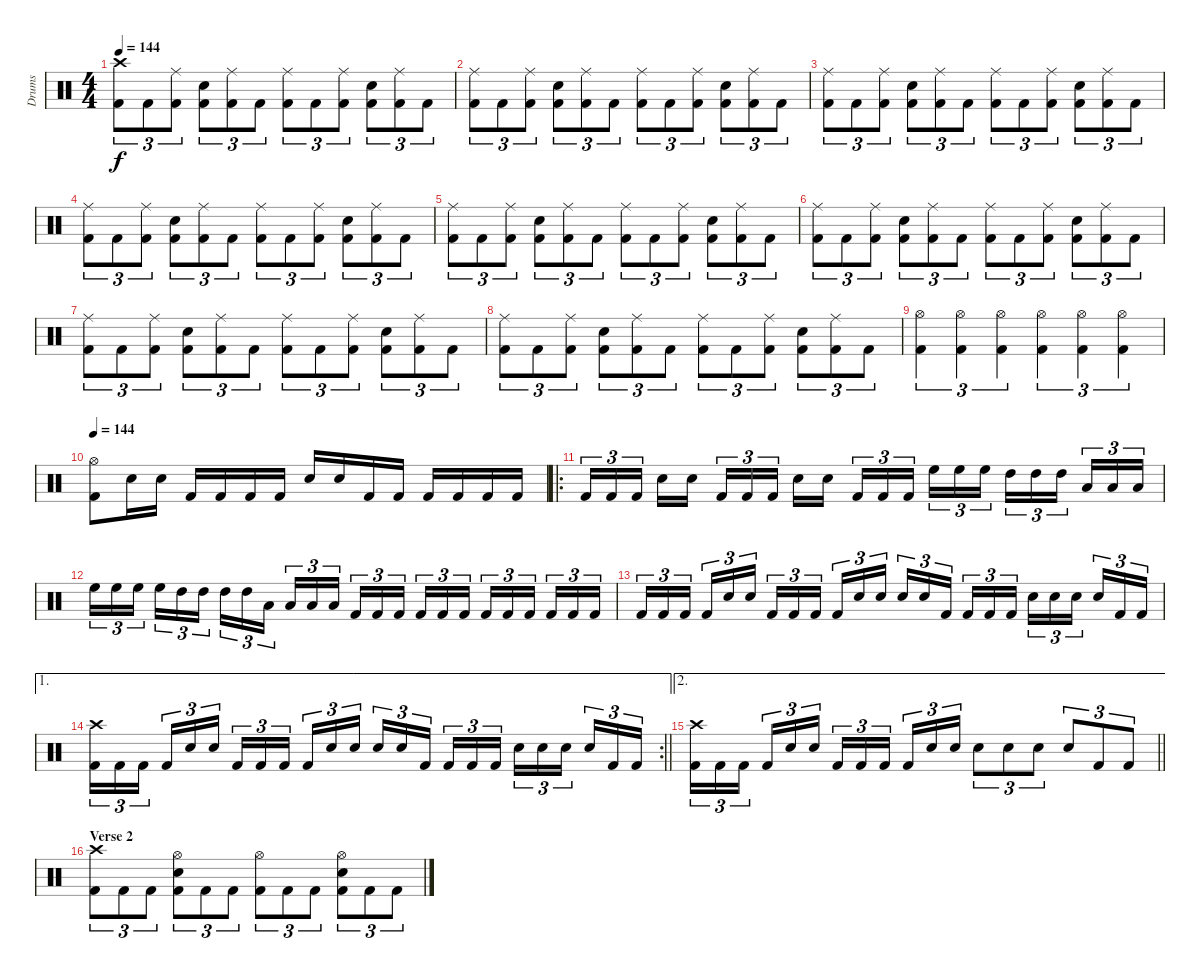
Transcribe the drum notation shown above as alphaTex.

\track ("Drums" "Drums") {instrument percussion}
\staff {score}
\articulation defaults
\ts (4 4)
\tempo 144
\clef neutral
\ks c
("Crash high (hit)" "Kick (hit) 2").8{tu (3 2) dy f} "Kick (hit) 2".8{tu (3 2)} ("Ride (middle)" "Kick (hit) 2").8{tu (3 2)} ("Snare (hit) 2" "Kick (hit) 2").8{tu (3 2)} ("Ride (middle)" "Kick (hit) 2").8{tu (3 2)} "Kick (hit) 2".8{tu (3 2)} ("Ride (middle)" "Kick (hit) 2").8{tu (3 2)} "Kick (hit) 2".8{tu (3 2)} ("Ride (middle)" "Kick (hit) 2").8{tu (3 2)} ("Snare (hit) 2" "Kick (hit) 2").8{tu (3 2)} ("Ride (middle)" "Kick (hit) 2").8{tu (3 2)} "Kick (hit) 2".8{tu (3 2)} |
("Ride (middle)" "Kick (hit) 2").8{tu (3 2)} "Kick (hit) 2".8{tu (3 2)} ("Ride (middle)" "Kick (hit) 2").8{tu (3 2)} ("Snare (hit) 2" "Kick (hit) 2").8{tu (3 2)} ("Ride (middle)" "Kick (hit) 2").8{tu (3 2)} "Kick (hit) 2".8{tu (3 2)} ("Ride (middle)" "Kick (hit) 2").8{tu (3 2)} "Kick (hit) 2".8{tu (3 2)} ("Ride (middle)" "Kick (hit) 2").8{tu (3 2)} ("Snare (hit) 2" "Kick (hit) 2").8{tu (3 2)} ("Ride (middle)" "Kick (hit) 2").8{tu (3 2)} "Kick (hit) 2".8{tu (3 2)} |
("Ride (middle)" "Kick (hit) 2").8{tu (3 2)} "Kick (hit) 2".8{tu (3 2)} ("Ride (middle)" "Kick (hit) 2").8{tu (3 2)} ("Snare (hit) 2" "Kick (hit) 2").8{tu (3 2)} ("Ride (middle)" "Kick (hit) 2").8{tu (3 2)} "Kick (hit) 2".8{tu (3 2)} ("Ride (middle)" "Kick (hit) 2").8{tu (3 2)} "Kick (hit) 2".8{tu (3 2)} ("Ride (middle)" "Kick (hit) 2").8{tu (3 2)} ("Snare (hit) 2" "Kick (hit) 2").8{tu (3 2)} ("Ride (middle)" "Kick (hit) 2").8{tu (3 2)} "Kick (hit) 2".8{tu (3 2)} |
("Ride (middle)" "Kick (hit) 2").8{tu (3 2)} "Kick (hit) 2".8{tu (3 2)} ("Ride (middle)" "Kick (hit) 2").8{tu (3 2)} ("Snare (hit) 2" "Kick (hit) 2").8{tu (3 2)} ("Ride (middle)" "Kick (hit) 2").8{tu (3 2)} "Kick (hit) 2".8{tu (3 2)} ("Ride (middle)" "Kick (hit) 2").8{tu (3 2)} "Kick (hit) 2".8{tu (3 2)} ("Ride (middle)" "Kick (hit) 2").8{tu (3 2)} ("Snare (hit) 2" "Kick (hit) 2").8{tu (3 2)} ("Ride (middle)" "Kick (hit) 2").8{tu (3 2)} "Kick (hit) 2".8{tu (3 2)} |
("Ride (middle)" "Kick (hit) 2").8{tu (3 2)} "Kick (hit) 2".8{tu (3 2)} ("Ride (middle)" "Kick (hit) 2").8{tu (3 2)} ("Snare (hit) 2" "Kick (hit) 2").8{tu (3 2)} ("Ride (middle)" "Kick (hit) 2").8{tu (3 2)} "Kick (hit) 2".8{tu (3 2)} ("Ride (middle)" "Kick (hit) 2").8{tu (3 2)} "Kick (hit) 2".8{tu (3 2)} ("Ride (middle)" "Kick (hit) 2").8{tu (3 2)} ("Snare (hit) 2" "Kick (hit) 2").8{tu (3 2)} ("Ride (middle)" "Kick (hit) 2").8{tu (3 2)} "Kick (hit) 2".8{tu (3 2)} |
("Ride (middle)" "Kick (hit) 2").8{tu (3 2)} "Kick (hit) 2".8{tu (3 2)} ("Ride (middle)" "Kick (hit) 2").8{tu (3 2)} ("Snare (hit) 2" "Kick (hit) 2").8{tu (3 2)} ("Ride (middle)" "Kick (hit) 2").8{tu (3 2)} "Kick (hit) 2".8{tu (3 2)} ("Ride (middle)" "Kick (hit) 2").8{tu (3 2)} "Kick (hit) 2".8{tu (3 2)} ("Ride (middle)" "Kick (hit) 2").8{tu (3 2)} ("Snare (hit) 2" "Kick (hit) 2").8{tu (3 2)} ("Ride (middle)" "Kick (hit) 2").8{tu (3 2)} "Kick (hit) 2".8{tu (3 2)} |
("Ride (middle)" "Kick (hit) 2").8{tu (3 2)} "Kick (hit) 2".8{tu (3 2)} ("Ride (middle)" "Kick (hit) 2").8{tu (3 2)} ("Snare (hit) 2" "Kick (hit) 2").8{tu (3 2)} ("Ride (middle)" "Kick (hit) 2").8{tu (3 2)} "Kick (hit) 2".8{tu (3 2)} ("Ride (middle)" "Kick (hit) 2").8{tu (3 2)} "Kick (hit) 2".8{tu (3 2)} ("Ride (middle)" "Kick (hit) 2").8{tu (3 2)} ("Snare (hit) 2" "Kick (hit) 2").8{tu (3 2)} ("Ride (middle)" "Kick (hit) 2").8{tu (3 2)} "Kick (hit) 2".8{tu (3 2)} |
("Ride (middle)" "Kick (hit) 2").8{tu (3 2)} "Kick (hit) 2".8{tu (3 2)} ("Ride (middle)" "Kick (hit) 2").8{tu (3 2)} ("Snare (hit) 2" "Kick (hit) 2").8{tu (3 2)} ("Ride (middle)" "Kick (hit) 2").8{tu (3 2)} "Kick (hit) 2".8{tu (3 2)} ("Ride (middle)" "Kick (hit) 2").8{tu (3 2)} "Kick (hit) 2".8{tu (3 2)} ("Ride (middle)" "Kick (hit) 2").8{tu (3 2)} ("Snare (hit) 2" "Kick (hit) 2").8{tu (3 2)} ("Ride (middle)" "Kick (hit) 2").8{tu (3 2)} "Kick (hit) 2".8{tu (3 2)} |
("Hi-Hat (open)" "Kick (hit) 2").4{tu (3 2)} ("Hi-Hat (open)" "Kick (hit) 2").4{tu (3 2)} ("Hi-Hat (open)" "Kick (hit) 2").4{tu (3 2)} ("Hi-Hat (open)" "Kick (hit) 2").4{tu (3 2)} ("Hi-Hat (open)" "Kick (hit) 2").4{tu (3 2)} ("Hi-Hat (open)" "Kick (hit) 2").4{tu (3 2)} |
\tempo 144
("Hi-Hat (open)" "Kick (hit) 2").8 "Snare (hit) 2".16 "Snare (hit) 2".16 "Kick (hit) 2".16 "Kick (hit) 2".16 "Kick (hit) 2".16 "Kick (hit) 2".16 "Snare (hit) 2".16 "Snare (hit) 2".16 "Kick (hit) 2".16 "Kick (hit) 2".16 "Kick (hit) 2".16 "Kick (hit) 2".16 "Kick (hit) 2".16 "Kick (hit) 2".16 |
\ro "Kick (hit) 2".16{tu (3 2)} "Kick (hit) 2".16{tu (3 2)} "Kick (hit) 2".16{tu (3 2) beam splitsecondary} "Snare (hit) 2".16 "Snare (hit) 2".16 "Kick (hit) 2".16{tu (3 2)} "Kick (hit) 2".16{tu (3 2)} "Kick (hit) 2".16{tu (3 2) beam splitsecondary} "Snare (hit) 2".16 "Snare (hit) 2".16 "Kick (hit) 2".16{tu (3 2)} "Kick (hit) 2".16{tu (3 2)} "Kick (hit) 2".16{tu (3 2) beam splitsecondary} "High Floor Tom (hit)".16{tu (3 2)} "High Floor Tom (hit)".16{tu (3 2)} "High Floor Tom (hit)".16{tu (3 2)} "High Tom (hit)".16{tu (3 2)} "High Tom (hit)".16{tu (3 2)} "High Tom (hit)".16{tu (3 2) beam splitsecondary} "Low Tom (hit)".16{tu (3 2)} "Low Tom (hit)".16{tu (3 2)} "Low Tom (hit)".16{tu (3 2)}
|
"High Floor Tom (hit)".16{tu (3 2)} "High Floor Tom (hit)".16{tu (3 2)} "High Floor Tom (hit)".16{tu (3 2) beam splitsecondary} "High Floor Tom (hit)".16{tu (3 2)} "High Tom (hit)".16{tu (3 2)} "High Tom (hit)".16{tu (3 2)} "High Tom (hit)".16{tu (3 2)} "High Tom (hit)".16{tu (3 2)} "Low Tom (hit)".16{tu (3 2) beam splitsecondary} "Low Tom (hit)".16{tu (3 2)} "Low Tom (hit)".16{tu (3 2)} "Low Tom (hit)".16{tu (3 2)} "Kick (hit) 2".16{tu (3 2)} "Kick (hit) 2".16{tu (3 2)} "Kick (hit) 2".16{tu (3 2) beam splitsecondary} "Kick (hit) 2".16{tu (3 2)} "Kick (hit) 2".16{tu (3 2)} "Kick (hit) 2".16{tu (3 2)} "Kick (hit) 2".16{tu (3 2)} "Kick (hit) 2".16{tu (3 2)} "Kick (hit) 2".16{tu (3 2) beam splitsecondary} "Kick (hit) 2".16{tu (3 2)} "Kick (hit) 2".16{tu (3 2)} "Kick (hit) 2".16{tu (3 2)} |
"Kick (hit) 2".16{tu (3 2)} "Kick (hit) 2".16{tu (3 2)} "Kick (hit) 2".16{tu (3 2) beam splitsecondary} "Kick (hit) 2".16{tu (3 2)} "Snare (hit) 2".16{tu (3 2)} "Snare (hit) 2".16{tu (3 2)} "Kick (hit) 2".16{tu (3 2)} "Kick (hit) 2".16{tu (3 2)} "Kick (hit) 2".16{tu (3 2) beam splitsecondary} "Kick (hit) 2".16{tu (3 2)} "Snare (hit) 2".16{tu (3 2)} "Snare (hit) 2".16{tu (3 2)} "Snare (hit) 2".16{tu (3 2)} "Snare (hit) 2".16{tu (3 2)} "Kick (hit) 2".16{tu (3 2) beam splitsecondary} "Kick (hit) 2".16{tu (3 2)} "Kick (hit) 2".16{tu (3 2)} "Kick (hit) 2".16{tu (3 2)} "Snare (hit) 2".16{tu (3 2)} "Snare (hit) 2".16{tu (3 2)} "Snare (hit) 2".16{tu (3 2) beam splitsecondary} "Snare (hit) 2".16{tu (3 2)} "Kick (hit) 2".16{tu (3 2)} "Kick (hit) 2".16{tu (3 2)} |
\ae 1
\rc 2
\barLineRight lightlight
("Crash high (hit)" "Kick (hit) 2").16{tu (3 2)} "Kick (hit) 2".16{tu (3 2)} "Kick (hit) 2".16{tu (3 2) beam splitsecondary} "Kick (hit) 2".16{tu (3 2)} "Snare (hit) 2".16{tu (3 2)} "Snare (hit) 2".16{tu (3 2)} "Kick (hit) 2".16{tu (3 2)} "Kick (hit) 2".16{tu (3 2)} "Kick (hit) 2".16{tu (3 2) beam splitsecondary} "Kick (hit) 2".16{tu (3 2)} "Snare (hit) 2".16{tu (3 2)} "Snare (hit) 2".16{tu (3 2)} "Snare (hit) 2".16{tu (3 2)} "Snare (hit) 2".16{tu (3 2)} "Kick (hit) 2".16{tu (3 2) beam splitsecondary} "Kick (hit) 2".16{tu (3 2)} "Kick (hit) 2".16{tu (3 2)} "Kick (hit) 2".16{tu (3 2)} "Snare (hit) 2".16{tu (3 2)} "Snare (hit) 2".16{tu (3 2)} "Snare (hit) 2".16{tu (3 2) beam splitsecondary} "Snare (hit) 2".16{tu (3 2)} "Kick (hit) 2".16{tu (3 2)} "Kick (hit) 2".16{tu (3 2)} |
\ae 2
\barLineRight lightlight
("Crash high (hit)" "Kick (hit) 2").16{tu (3 2)} "Kick (hit) 2".16{tu (3 2)} "Kick (hit) 2".16{tu (3 2) beam splitsecondary} "Kick (hit) 2".16{tu (3 2)} "Snare (hit) 2".16{tu (3 2)} "Snare (hit) 2".16{tu (3 2)} "Kick (hit) 2".16{tu (3 2)} "Kick (hit) 2".16{tu (3 2)} "Kick (hit) 2".16{tu (3 2) beam splitsecondary} "Kick (hit) 2".16{tu (3 2)} "Snare (hit) 2".16{tu (3 2)} "Snare (hit) 2".16{tu (3 2)} "Snare (hit) 2".8{tu (3 2)} "Snare (hit) 2".8{tu (3 2)} "Snare (hit) 2".8{tu (3 2)} "Snare (hit) 2".8{tu (3 2)} "Kick (hit) 2".8{tu (3 2)} "Kick (hit) 2".8{tu (3 2)} |
\section ("" "Verse 2")
("Crash high (hit)" "Kick (hit) 2").8{tu (3 2)} "Kick (hit) 2".8{tu (3 2)} "Kick (hit) 2".8{tu (3 2)} ("Hi-Hat (open)" "Snare (hit) 2" "Kick (hit) 2").8{tu (3 2)} "Kick (hit) 2".8{tu (3 2)} "Kick (hit) 2".8{tu (3 2)} ("Hi-Hat (open)" "Kick (hit) 2").8{tu (3 2)} "Kick (hit) 2".8{tu (3 2)} "Kick (hit) 2".8{tu (3 2)} ("Hi-Hat (open)" "Snare (hit) 2" "Kick (hit) 2").8{tu (3 2)} "Kick (hit) 2".8{tu (3 2)} "Kick (hit) 2".8{tu (3 2)}
